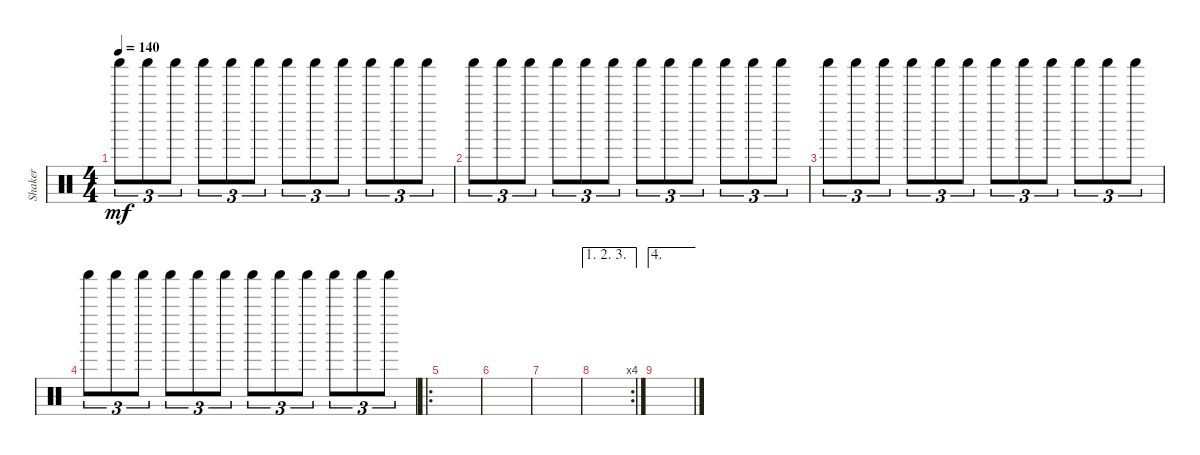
\track ("Shaker" "Shaker") {instrument percussion}
\staff {score}
\articulation defaults
\ts (4 4)
\tempo 140
\clef neutral
\ks c "Shaker (hit)".8{tu (3 2) dy mf} "Shaker (hit)".8{tu (3 2)} "Shaker (hit)".8{tu (3 2)} "Shaker (hit)".8{tu (3 2)} "Shaker (hit)".8{tu (3 2)} "Shaker (hit)".8{tu (3 2)} "Shaker (hit)".8{tu (3 2)} "Shaker (hit)".8{tu (3 2)} "Shaker (hit)".8{tu (3 2)} "Shaker (hit)".8{tu (3 2)} "Shaker (hit)".8{tu (3 2)} "Shaker (hit)".8{tu (3 2)}
|
"Shaker (hit)".8{tu (3 2)} "Shaker (hit)".8{tu (3 2)} "Shaker (hit)".8{tu (3 2)} "Shaker (hit)".8{tu (3 2)} "Shaker (hit)".8{tu (3 2)} "Shaker (hit)".8{tu (3 2)} "Shaker (hit)".8{tu (3 2)} "Shaker (hit)".8{tu (3 2)} "Shaker (hit)".8{tu (3 2)} "Shaker (hit)".8{tu (3 2)} "Shaker (hit)".8{tu (3 2)} "Shaker (hit)".8{tu (3 2)} |
"Shaker (hit)".8{tu (3 2)} "Shaker (hit)".8{tu (3 2)} "Shaker (hit)".8{tu (3 2)} "Shaker (hit)".8{tu (3 2)} "Shaker (hit)".8{tu (3 2)} "Shaker (hit)".8{tu (3 2)} "Shaker (hit)".8{tu (3 2)} "Shaker (hit)".8{tu (3 2)} "Shaker (hit)".8{tu (3 2)} "Shaker (hit)".8{tu (3 2)} "Shaker (hit)".8{tu (3 2)} "Shaker (hit)".8{tu (3 2)} |
"Shaker (hit)".8{tu (3 2)} "Shaker (hit)".8{tu (3 2)} "Shaker (hit)".8{tu (3 2)} "Shaker (hit)".8{tu (3 2)} "Shaker (hit)".8{tu (3 2)} "Shaker (hit)".8{tu (3 2)} "Shaker (hit)".8{tu (3 2)} "Shaker (hit)".8{tu (3 2)} "Shaker (hit)".8{tu (3 2)} "Shaker (hit)".8{tu (3 2)} "Shaker (hit)".8{tu (3 2)} "Shaker (hit)".8{tu (3 2)} |
\ro
|
|
|
\ae (1 2 3)
\rc 4
|
\ae 4
